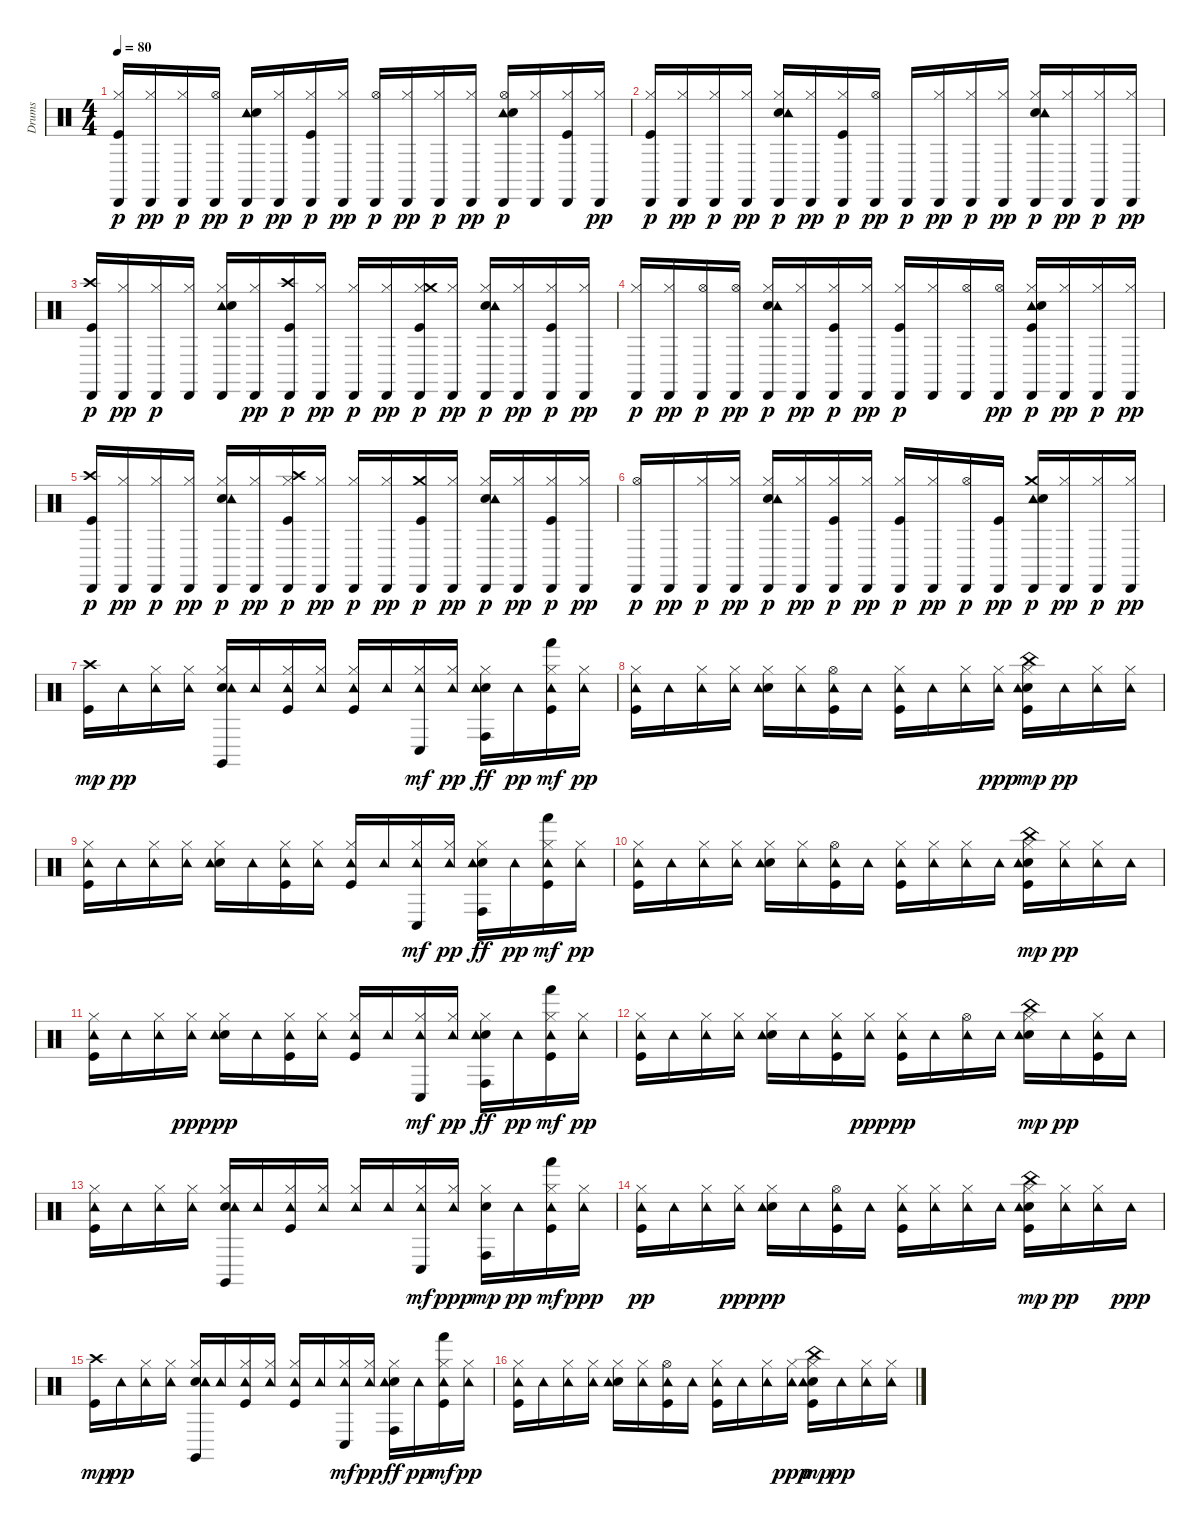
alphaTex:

\track ("Drums   " "Drums   ") {instrument percussion}
\staff {score}
\articulation defaults
\ts (4 4)
\tempo 80
\clef neutral
\ks c
("Kick (hit)" "Hi-Hat (closed)" "Cabasa (hit)").16{dy p} ("Hi-Hat (closed)" "Cabasa (hit)").16{dy pp} ("Hi-Hat (closed)" "Cabasa (hit)").16{dy p} ("Hi-Hat (open)" "Cabasa (hit)").16{dy pp} ("Tambourine (hit)" "Snare (hit) 2" "Cabasa (hit)").16{dy p} ("Hi-Hat (closed)" "Cabasa (hit)").16{dy pp} ("Kick (hit)" "Hi-Hat (closed)" "Cabasa (hit)").16{dy p} ("Hi-Hat (closed)" "Cabasa (hit)").16{dy pp} ("Hi-Hat (open)" "Cabasa (hit)").16{dy p} ("Hi-Hat (closed)" "Cabasa (hit)").16{dy pp} ("Hi-Hat (closed)" "Cabasa (hit)").16{dy p} ("Hi-Hat (closed)" "Cabasa (hit)").16{dy pp} ("Tambourine (hit)" "Snare (hit) 2" "Hi-Hat (open)" "Cabasa (hit)").16{dy p} ("Hi-Hat (closed)" "Cabasa (hit)").16 ("Kick (hit)" "Hi-Hat (closed)" "Cabasa (hit)").16 ("Hi-Hat (closed)" "Cabasa (hit)").16{dy pp} |
("Kick (hit)" "Hi-Hat (closed)" "Cabasa (hit)").16{dy p} ("Hi-Hat (closed)" "Cabasa (hit)").16{dy pp} ("Hi-Hat (closed)" "Cabasa (hit)").16{dy p} ("Hi-Hat (closed)" "Cabasa (hit)").16{dy pp} ("Snare (hit) 2" "Hi-Hat (closed)" "Tambourine (hit)" "Cabasa (hit)").16{dy p} ("Hi-Hat (closed)" "Cabasa (hit)").16{dy pp} ("Kick (hit)" "Hi-Hat (closed)" "Cabasa (hit)").16{dy p} ("Hi-Hat (open)" "Cabasa (hit)").16{dy pp} "Cabasa (hit)".16{dy p} ("Hi-Hat (closed)" "Cabasa (hit)").16{dy pp} ("Hi-Hat (closed)" "Cabasa (hit)").16{dy p} ("Hi-Hat (closed)" "Cabasa (hit)").16{dy pp} ("Snare (hit) 2" "Hi-Hat (closed)" "Tambourine (hit)" "Cabasa (hit)").16{dy p} ("Hi-Hat (closed)" "Cabasa (hit)").16{dy pp} ("Hi-Hat (closed)" "Cabasa (hit)").16{dy p} ("Hi-Hat (closed)" "Cabasa (hit)").16{dy pp} |
("Kick (hit)" "Crash high (hit)" "Cabasa (hit)").16{dy p} ("Hi-Hat (closed)" "Cabasa (hit)").16{dy pp} ("Hi-Hat (closed)" "Cabasa (hit)").16{dy p} ("Hi-Hat (closed)" "Cabasa (hit)").16 ("Tambourine (hit)" "Snare (hit) 2" "Hi-Hat (closed)" "Cabasa (hit)").16 ("Hi-Hat (closed)" "Cabasa (hit)").16{dy pp} ("Kick (hit)" "Crash high (hit)" "Cabasa (hit)").16{dy p} ("Hi-Hat (closed)" "Cabasa (hit)").16{dy pp} ("Hi-Hat (closed)" "Cabasa (hit)").16{dy p} ("Hi-Hat (closed)" "Cabasa (hit)").16{dy pp} ("Kick (hit)" "Hi-Hat (closed)" "Crash medium (hit)" "Cabasa (hit)").16{dy p} ("Hi-Hat (closed)" "Cabasa (hit)").16{dy pp} ("Snare (hit) 2" "Hi-Hat (closed)" "Tambourine (hit)" "Cabasa (hit)").16{dy p} ("Hi-Hat (closed)" "Cabasa (hit)").16{dy pp} ("Kick (hit)" "Hi-Hat (closed)" "Cabasa (hit)").16{dy p} ("Hi-Hat (closed)" "Cabasa (hit)").16{dy pp} |
("Hi-Hat (closed)" "Cabasa (hit)").16{dy p} ("Hi-Hat (closed)" "Cabasa (hit)").16{dy pp} ("Hi-Hat (open)" "Cabasa (hit)").16{dy p} ("Hi-Hat (open)" "Cabasa (hit)").16{dy pp} ("Snare (hit) 2" "Hi-Hat (closed)" "Tambourine (hit)" "Cabasa (hit)").16{dy p} ("Hi-Hat (closed)" "Cabasa (hit)").16{dy pp} ("Kick (hit)" "Hi-Hat (closed)" "Cabasa (hit)").16{dy p} ("Hi-Hat (closed)" "Cabasa (hit)").16{dy pp} ("Kick (hit)" "Hi-Hat (closed)" "Cabasa (hit)").16{dy p} ("Hi-Hat (closed)" "Cabasa (hit)").16 ("Hi-Hat (open)" "Cabasa (hit)").16 ("Hi-Hat (open)" "Cabasa (hit)").16{dy pp} ("Tambourine (hit)" "Kick (hit)" "Snare (hit) 2" "Hi-Hat (closed)" "Cabasa (hit)").16{dy p} ("Hi-Hat (closed)" "Cabasa (hit)").16{dy pp} ("Hi-Hat (closed)" "Cabasa (hit)").16{dy p} ("Hi-Hat (closed)" "Cabasa (hit)").16{dy pp} |
("Kick (hit)" "Crash high (hit)" "Cabasa (hit)").16{dy p} ("Hi-Hat (closed)" "Cabasa (hit)").16{dy pp} ("Hi-Hat (closed)" "Cabasa (hit)").16{dy p} ("Hi-Hat (closed)" "Cabasa (hit)").16{dy pp} ("Snare (hit) 2" "Hi-Hat (closed)" "Tambourine (hit)" "Cabasa (hit)").16{dy p} ("Hi-Hat (closed)" "Cabasa (hit)").16{dy pp} ("Kick (hit)" "Hi-Hat (closed)" "Crash high (hit)" "Cabasa (hit)").16{dy p} ("Hi-Hat (closed)" "Cabasa (hit)").16{dy pp} ("Hi-Hat (closed)" "Cabasa (hit)").16{dy p} ("Hi-Hat (closed)" "Cabasa (hit)").16{dy pp} ("Kick (hit)" "Crash medium (hit)" "Cabasa (hit)").16{dy p} ("Hi-Hat (closed)" "Cabasa (hit)").16{dy pp} ("Snare (hit) 2" "Hi-Hat (closed)" "Tambourine (hit)" "Cabasa (hit)").16{dy p} ("Hi-Hat (closed)" "Cabasa (hit)").16{dy pp} ("Kick (hit)" "Hi-Hat (closed)" "Cabasa (hit)").16{dy p} ("Hi-Hat (closed)" "Cabasa (hit)").16{dy pp} |
("Hi-Hat (open)" "Cabasa (hit)").16{dy p} "Cabasa (hit)".16{dy pp} ("Hi-Hat (closed)" "Cabasa (hit)").16{dy p} ("Hi-Hat (closed)" "Cabasa (hit)").16{dy pp} ("Snare (hit) 2" "Hi-Hat (closed)" "Tambourine (hit)" "Cabasa (hit)").16{dy p} ("Hi-Hat (closed)" "Cabasa (hit)").16{dy pp} ("Kick (hit)" "Hi-Hat (closed)" "Cabasa (hit)").16{dy p} ("Hi-Hat (closed)" "Cabasa (hit)").16{dy pp} ("Kick (hit)" "Hi-Hat (closed)" "Cabasa (hit)").16{dy p} ("Hi-Hat (closed)" "Cabasa (hit)").16{dy pp} ("Hi-Hat (open)" "Cabasa (hit)").16{dy p} ("Kick (hit)" "Cabasa (hit)").16{dy pp} ("Tambourine (hit)" "Snare (hit) 2" "Crash medium (hit)" "Cabasa (hit)").16{dy p} ("Hi-Hat (closed)" "Cabasa (hit)").16{dy pp} ("Hi-Hat (closed)" "Cabasa (hit)").16{dy p} ("Hi-Hat (closed)" "Cabasa (hit)").16{dy pp} |
("Kick (hit)" "Crash high (hit)").16{dy mp} "Tambourine (hit)".16{dy pp} ("Hi-Hat (closed)" "Tambourine (hit)").16 ("Hi-Hat (closed)" "Tambourine (hit)").16 ("Snare (hit) 2" "Hi-Hat (closed)" "Tambourine (hit)" "Claves (hit)").16 "Tambourine (hit)".16 ("Kick (hit)" "Hi-Hat (closed)" "Tambourine (hit)").16 ("Hi-Hat (closed)" "Tambourine (hit)").16 ("Kick (hit)" "Hi-Hat (closed)" "Tambourine (hit)").16 "Tambourine (hit)".16 ("Hi-Hat (closed)" "Tambourine (hit)" "Conga low (hit)").16{dy mf} ("Hi-Hat (closed)" "Tambourine (hit)").16{dy pp} ("Snare (hit) 2" "Hi-Hat (closed)" "Tambourine (hit)" "Conga high (hit)").16{dy ff} "Tambourine (hit)".16{dy pp} ("Kick (hit)" "Hi-Hat (closed)" "Tambourine (hit)" "Hand (hit)").16{dy mf} ("Hi-Hat (closed)" "Tambourine (hit)").16{dy pp} |
("Kick (hit)" "Hi-Hat (closed)" "Tambourine (hit)").16 "Tambourine (hit)".16 ("Hi-Hat (closed)" "Tambourine (hit)").16 ("Hi-Hat (closed)" "Tambourine (hit)").16 ("Snare (hit) 2" "Hi-Hat (closed)" "Tambourine (hit)").16 ("Hi-Hat (closed)" "Tambourine (hit)").16 ("Kick (hit)" "Hi-Hat (open)" "Tambourine (hit)").16 "Tambourine (hit)".16 ("Kick (hit)" "Hi-Hat (closed)" "Tambourine (hit)").16 "Tambourine (hit)".16 ("Hi-Hat (closed)" "Tambourine (hit)").16 ("Hi-Hat (closed)" "Tambourine (hit)").16{dy ppp} ("Kick (hit)" "Snare (hit) 2" "Hi-Hat (closed)" "China (hit)" "Tambourine (hit)").16{dy mp} "Tambourine (hit)".16{dy pp} ("Hi-Hat (closed)" "Tambourine (hit)").16 ("Hi-Hat (closed)" "Tambourine (hit)").16 |
("Kick (hit)" "Hi-Hat (closed)" "Tambourine (hit)").16 "Tambourine (hit)".16 ("Hi-Hat (closed)" "Tambourine (hit)").16 ("Hi-Hat (closed)" "Tambourine (hit)").16 ("Snare (hit) 2" "Hi-Hat (closed)" "Tambourine (hit)").16 "Tambourine (hit)".16 ("Kick (hit)" "Hi-Hat (closed)" "Tambourine (hit)").16 ("Hi-Hat (closed)" "Tambourine (hit)").16 ("Kick (hit)" "Hi-Hat (closed)" "Tambourine (hit)").16 "Tambourine (hit)".16 ("Hi-Hat (closed)" "Tambourine (hit)" "Conga low (hit)").16{dy mf} ("Hi-Hat (closed)" "Tambourine (hit)").16{dy pp} ("Snare (hit) 2" "Hi-Hat (closed)" "Tambourine (hit)" "Conga high (hit)").16{dy ff} "Tambourine (hit)".16{dy pp} ("Kick (hit)" "Hi-Hat (closed)" "Tambourine (hit)" "Hand (hit)").16{dy mf} ("Hi-Hat (closed)" "Tambourine (hit)").16{dy pp} |
("Kick (hit)" "Hi-Hat (closed)" "Tambourine (hit)").16 "Tambourine (hit)".16 ("Hi-Hat (closed)" "Tambourine (hit)").16 ("Hi-Hat (closed)" "Tambourine (hit)").16 ("Snare (hit) 2" "Hi-Hat (closed)" "Tambourine (hit)").16 ("Hi-Hat (closed)" "Tambourine (hit)").16 ("Kick (hit)" "Hi-Hat (open)" "Tambourine (hit)").16 "Tambourine (hit)".16 ("Kick (hit)" "Hi-Hat (closed)" "Tambourine (hit)").16 ("Hi-Hat (closed)" "Tambourine (hit)").16 ("Hi-Hat (closed)" "Tambourine (hit)").16 "Tambourine (hit)".16 ("Kick (hit)" "Snare (hit) 2" "Hi-Hat (closed)" "China (hit)" "Tambourine (hit)").16{dy mp} ("Hi-Hat (closed)" "Tambourine (hit)").16{dy pp} ("Hi-Hat (closed)" "Tambourine (hit)").16 "Tambourine (hit)".16 |
("Kick (hit)" "Hi-Hat (closed)" "Tambourine (hit)").16 "Tambourine (hit)".16 ("Hi-Hat (closed)" "Tambourine (hit)").16 ("Hi-Hat (closed)" "Tambourine (hit)").16{dy ppp} ("Snare (hit) 2" "Hi-Hat (closed)" "Tambourine (hit)").16{dy pp} "Tambourine (hit)".16 ("Kick (hit)" "Hi-Hat (closed)" "Tambourine (hit)").16 ("Hi-Hat (closed)" "Tambourine (hit)").16 ("Kick (hit)" "Hi-Hat (closed)" "Tambourine (hit)").16 "Tambourine (hit)".16 ("Hi-Hat (closed)" "Tambourine (hit)" "Conga low (hit)").16{dy mf} ("Hi-Hat (closed)" "Tambourine (hit)").16{dy pp} ("Snare (hit) 2" "Hi-Hat (closed)" "Tambourine (hit)" "Conga high (hit)").16{dy ff} "Tambourine (hit)".16{dy pp} ("Kick (hit)" "Hi-Hat (closed)" "Tambourine (hit)" "Hand (hit)").16{dy mf} ("Hi-Hat (closed)" "Tambourine (hit)").16{dy pp} |
("Kick (hit)" "Hi-Hat (closed)" "Tambourine (hit)").16 "Tambourine (hit)".16 ("Hi-Hat (closed)" "Tambourine (hit)").16 ("Hi-Hat (closed)" "Tambourine (hit)").16 ("Snare (hit) 2" "Hi-Hat (closed)" "Tambourine (hit)").16 "Tambourine (hit)".16 ("Kick (hit)" "Hi-Hat (closed)" "Tambourine (hit)").16 ("Hi-Hat (closed)" "Tambourine (hit)").16{dy ppp} ("Kick (hit)" "Hi-Hat (closed)" "Tambourine (hit)").16{dy pp} "Tambourine (hit)".16 ("Hi-Hat (open)" "Tambourine (hit)").16 "Tambourine (hit)".16 ("Snare (hit) 2" "Hi-Hat (closed)" "China (hit)" "Tambourine (hit)").16{dy mp} "Tambourine (hit)".16{dy pp} ("Kick (hit)" "Hi-Hat (closed)" "Tambourine (hit)").16 "Tambourine (hit)".16 |
("Kick (hit)" "Hi-Hat (closed)" "Tambourine (hit)").16 "Tambourine (hit)".16 ("Hi-Hat (closed)" "Tambourine (hit)").16 ("Hi-Hat (closed)" "Tambourine (hit)").16 ("Snare (hit) 2" "Hi-Hat (closed)" "Tambourine (hit)" "Claves (hit)").16 "Tambourine (hit)".16 ("Kick (hit)" "Hi-Hat (closed)" "Tambourine (hit)").16 ("Hi-Hat (closed)" "Tambourine (hit)").16 ("Hi-Hat (closed)" "Tambourine (hit)").16 "Tambourine (hit)".16 ("Hi-Hat (closed)" "Tambourine (hit)" "Conga low (hit)").16{dy mf} ("Hi-Hat (closed)" "Tambourine (hit)").16{dy ppp} ("Snare (hit) 2" "Hi-Hat (closed)" "Conga high (hit)").16{dy mp} "Tambourine (hit)".16{dy pp} ("Kick (hit)" "Hi-Hat (closed)" "Tambourine (hit)" "Hand (hit)").16{dy mf} ("Hi-Hat (closed)" "Tambourine (hit)").16{dy ppp} |
("Kick (hit)" "Hi-Hat (closed)" "Tambourine (hit)").16{dy pp} "Tambourine (hit)".16 ("Hi-Hat (closed)" "Tambourine (hit)").16 ("Hi-Hat (closed)" "Tambourine (hit)").16{dy ppp} ("Snare (hit) 2" "Hi-Hat (closed)" "Tambourine (hit)").16{dy pp} "Tambourine (hit)".16 ("Kick (hit)" "Hi-Hat (open)" "Tambourine (hit)").16 "Tambourine (hit)".16 ("Kick (hit)" "Hi-Hat (closed)" "Tambourine (hit)").16 ("Hi-Hat (closed)" "Tambourine (hit)").16 ("Hi-Hat (closed)" "Tambourine (hit)").16 "Tambourine (hit)".16 ("Kick (hit)" "Snare (hit) 2" "Hi-Hat (closed)" "China (hit)" "Tambourine (hit)").16{dy mp} ("Hi-Hat (closed)" "Tambourine (hit)").16{dy pp} ("Hi-Hat (closed)" "Tambourine (hit)").16 "Tambourine (hit)".16{dy ppp} |
("Kick (hit)" "Crash high (hit)").16{dy mp} "Tambourine (hit)".16{dy pp} ("Hi-Hat (closed)" "Tambourine (hit)").16 ("Hi-Hat (closed)" "Tambourine (hit)").16 ("Snare (hit) 2" "Hi-Hat (closed)" "Tambourine (hit)" "Claves (hit)").16 "Tambourine (hit)".16 ("Kick (hit)" "Hi-Hat (closed)" "Tambourine (hit)").16 ("Hi-Hat (closed)" "Tambourine (hit)").16 ("Kick (hit)" "Hi-Hat (closed)" "Tambourine (hit)").16 "Tambourine (hit)".16 ("Hi-Hat (closed)" "Tambourine (hit)" "Conga low (hit)").16{dy mf} ("Hi-Hat (closed)" "Tambourine (hit)").16{dy pp} ("Snare (hit) 2" "Hi-Hat (closed)" "Tambourine (hit)" "Conga high (hit)").16{dy ff} "Tambourine (hit)".16{dy pp} ("Kick (hit)" "Hi-Hat (closed)" "Tambourine (hit)" "Hand (hit)").16{dy mf} ("Hi-Hat (closed)" "Tambourine (hit)").16{dy pp} |
("Kick (hit)" "Hi-Hat (closed)" "Tambourine (hit)").16 "Tambourine (hit)".16 ("Hi-Hat (closed)" "Tambourine (hit)").16 ("Hi-Hat (closed)" "Tambourine (hit)").16 ("Snare (hit) 2" "Hi-Hat (closed)" "Tambourine (hit)").16 ("Hi-Hat (closed)" "Tambourine (hit)").16 ("Kick (hit)" "Hi-Hat (open)" "Tambourine (hit)").16 "Tambourine (hit)".16 ("Kick (hit)" "Hi-Hat (closed)" "Tambourine (hit)").16 "Tambourine (hit)".16 ("Hi-Hat (closed)" "Tambourine (hit)").16 ("Hi-Hat (closed)" "Tambourine (hit)").16{dy ppp} ("Kick (hit)" "Snare (hit) 2" "Hi-Hat (closed)" "China (hit)" "Tambourine (hit)").16{dy mp} "Tambourine (hit)".16{dy pp} ("Hi-Hat (closed)" "Tambourine (hit)").16 ("Hi-Hat (closed)" "Tambourine (hit)").16
